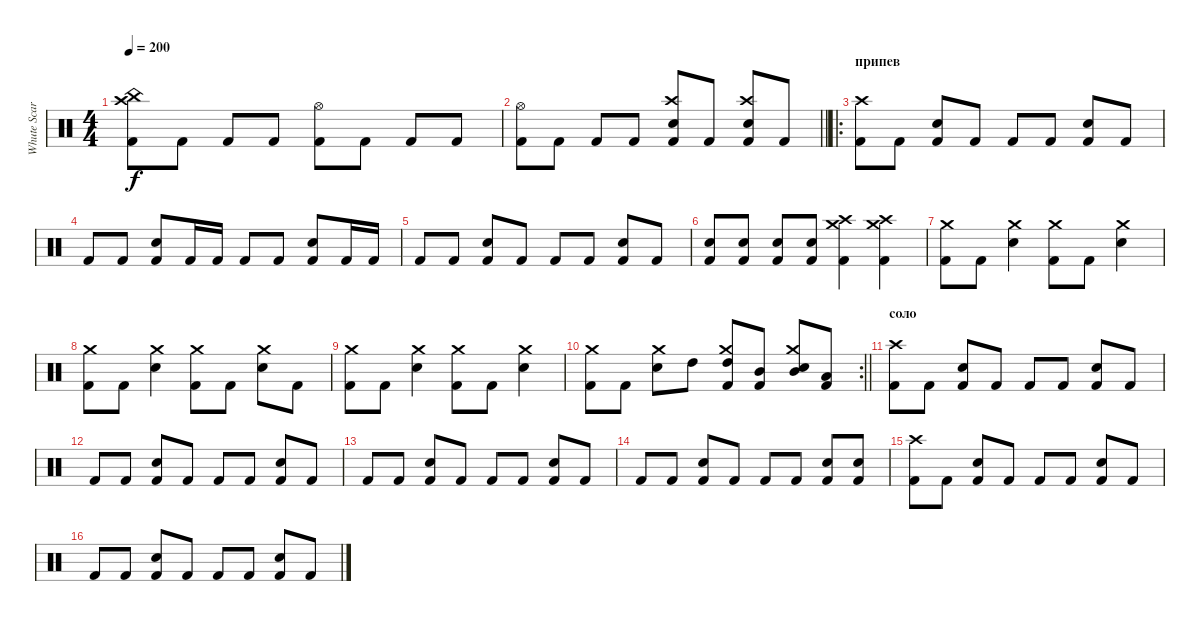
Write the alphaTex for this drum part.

\track ("Whute Scar" "Whute Scar") {instrument percussion}
\staff {score}
\articulation defaults
\ts (4 4)
\tempo 200
\clef neutral
\ks c
("Kick (hit) 2" "Crash high (hit)" "China (hit)").8{dy f} "Kick (hit) 2".8 "Kick (hit) 2".8 "Kick (hit) 2".8 ("Kick (hit) 2" "Hi-Hat (open)").8 "Kick (hit) 2".8 "Kick (hit) 2".8 "Kick (hit) 2".8 |
\barLineRight lightlight
("Kick (hit) 2" "Hi-Hat (open)").8 "Kick (hit) 2".8 "Kick (hit) 2".8 "Kick (hit) 2".8 ("Kick (hit) 2" "Snare (hit) 2" "Crash high (hit)").8 "Kick (hit) 2".8 ("Kick (hit) 2" "Crash high (hit)" "Snare (hit) 2").8 "Kick (hit) 2".8 |
\ro
\section ("" "припев")
("Crash high (hit)" "Kick (hit) 2").8 "Kick (hit) 2".8 ("Snare (hit) 2" "Kick (hit) 2").8 "Kick (hit) 2".8 "Kick (hit) 2".8 "Kick (hit) 2".8 ("Snare (hit) 2" "Kick (hit) 2").8 "Kick (hit) 2".8 |
"Kick (hit) 2".8 "Kick (hit) 2".8 ("Snare (hit) 2" "Kick (hit) 2").8 "Kick (hit) 2".16 "Kick (hit) 2".16 "Kick (hit) 2".8 "Kick (hit) 2".8 ("Snare (hit) 2" "Kick (hit) 2").8 "Kick (hit) 2".16 "Kick (hit) 2".16 |
"Kick (hit) 2".8 "Kick (hit) 2".8 ("Snare (hit) 2" "Kick (hit) 2").8 "Kick (hit) 2".8 "Kick (hit) 2".8 "Kick (hit) 2".8 ("Snare (hit) 2" "Kick (hit) 2").8 "Kick (hit) 2".8 |
("Snare (hit) 2" "Kick (hit) 2").8 ("Snare (hit) 2" "Kick (hit) 2").8 ("Snare (hit) 2" "Kick (hit) 2").8 ("Snare (hit) 2" "Kick (hit) 2").8 ("Crash medium (hit)" "Crash high (hit)" "Kick (hit) 2").4 ("Crash medium (hit)" "Crash high (hit)" "Kick (hit) 2").4 |
("Crash medium (hit)" "Kick (hit) 2").8 "Kick (hit) 2".8 ("Crash medium (hit)" "Snare (hit) 2").4 ("Crash medium (hit)" "Kick (hit) 2").8 "Kick (hit) 2".8 ("Crash medium (hit)" "Snare (hit) 2").4 |
("Crash medium (hit)" "Kick (hit) 2").8 "Kick (hit) 2".8 ("Crash medium (hit)" "Snare (hit) 2").4 ("Crash medium (hit)" "Kick (hit) 2").8 "Kick (hit) 2".8 ("Crash medium (hit)" "Snare (hit) 2").8 "Kick (hit) 2".8 |
("Crash medium (hit)" "Kick (hit) 2").8 "Kick (hit) 2".8 ("Crash medium (hit)" "Snare (hit) 2").4 ("Crash medium (hit)" "Kick (hit) 2").8 "Kick (hit) 2".8 ("Crash medium (hit)" "Snare (hit) 2").4 |
\rc 2
\barLineRight lightlight
("Crash medium (hit)" "Kick (hit) 2").8 "Kick (hit) 2".8 ("Crash medium (hit)" "Snare (hit) 2").8 "High Tom (hit)".8 ("Crash medium (hit)" "High Tom (hit)" "Kick (hit) 2").8 ("Mid Tom (hit)" "Kick (hit) 2").8 ("Crash medium (hit)" "Mid Tom (hit)" "Snare (hit) 2").8 ("Low Tom (hit)" "Kick (hit) 2").8 |
\section ("" "соло")
("Crash high (hit)" "Kick (hit) 2").8 "Kick (hit) 2".8 ("Snare (hit) 2" "Kick (hit) 2").8 "Kick (hit) 2".8 "Kick (hit) 2".8 "Kick (hit) 2".8 ("Snare (hit) 2" "Kick (hit) 2").8 "Kick (hit) 2".8 |
"Kick (hit) 2".8 "Kick (hit) 2".8 ("Snare (hit) 2" "Kick (hit) 2").8 "Kick (hit) 2".8 "Kick (hit) 2".8 "Kick (hit) 2".8 ("Snare (hit) 2" "Kick (hit) 2").8 "Kick (hit) 2".8 |
"Kick (hit) 2".8 "Kick (hit) 2".8 ("Snare (hit) 2" "Kick (hit) 2").8 "Kick (hit) 2".8 "Kick (hit) 2".8 "Kick (hit) 2".8 ("Snare (hit) 2" "Kick (hit) 2").8 "Kick (hit) 2".8 |
"Kick (hit) 2".8 "Kick (hit) 2".8 ("Snare (hit) 2" "Kick (hit) 2").8 "Kick (hit) 2".8 "Kick (hit) 2".8 "Kick (hit) 2".8 ("Snare (hit) 2" "Kick (hit) 2").8 ("Snare (hit) 2" "Kick (hit) 2").8 |
("Crash high (hit)" "Kick (hit) 2").8 "Kick (hit) 2".8 ("Snare (hit) 2" "Kick (hit) 2").8 "Kick (hit) 2".8 "Kick (hit) 2".8 "Kick (hit) 2".8 ("Snare (hit) 2" "Kick (hit) 2").8 "Kick (hit) 2".8 |
"Kick (hit) 2".8 "Kick (hit) 2".8 ("Snare (hit) 2" "Kick (hit) 2").8 "Kick (hit) 2".8 "Kick (hit) 2".8 "Kick (hit) 2".8 ("Snare (hit) 2" "Kick (hit) 2").8 "Kick (hit) 2".8
